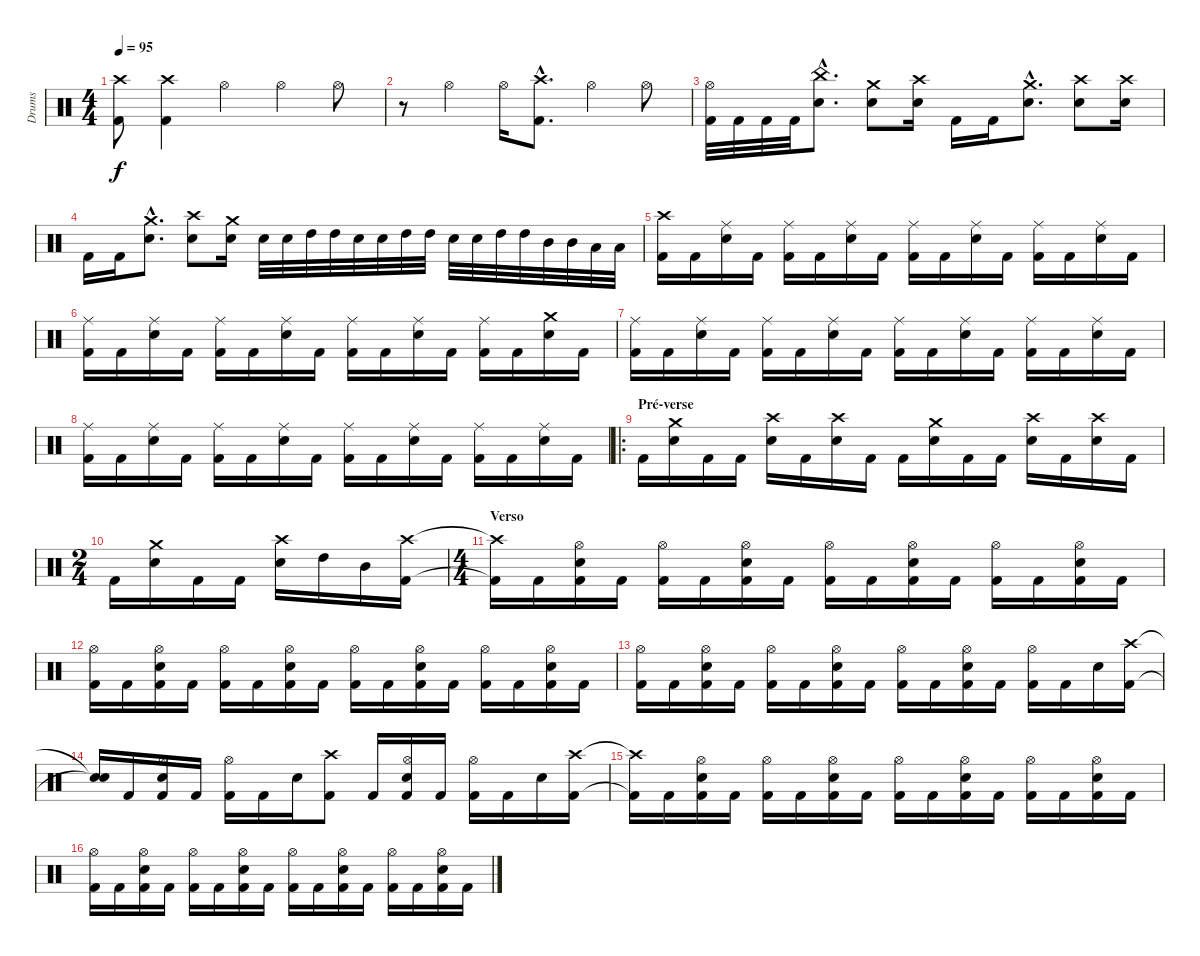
\track ("Drums" "Drums") {instrument percussion}
\staff {score}
\articulation defaults
\ts (4 4)
\tempo 95
\clef neutral
\ks c
("Crash high (hit)" "Kick (hit) 2").8{dy f} ("Crash high (hit)" "Kick (hit) 2").4 "Hi-Hat (open)".4 "Hi-Hat (open)".4 "Hi-Hat (open)".8 |
r.8 "Hi-Hat (open)".4 "Hi-Hat (open)".16 ("Crash high (hit)"{hac} "Kick (hit) 2"{hac}).8{d} "Hi-Hat (open)".4 "Hi-Hat (open)".8 |
("Hi-Hat (open)" "Kick (hit) 2").32 "Kick (hit) 2".32 "Kick (hit) 2".32 "Kick (hit) 2".32 ("China (hit)"{hac} "Snare (hit) 2"{hac}).8{d} ("Crash medium (hit)" "Snare (hit) 2").8 ("Crash high (hit)" "Snare (hit) 2").16 "Kick (hit) 2".16 "Kick (hit) 2".16 ("Crash medium (hit)"{hac} "Snare (hit) 2"{hac}).8{d} ("Crash high (hit)" "Snare (hit) 2").8 ("Crash high (hit)" "Snare (hit) 2").16 |
"Kick (hit) 2".16 "Kick (hit) 2".16 ("Crash medium (hit)"{hac} "Snare (hit) 2"{hac}).8{d} ("Crash high (hit)" "Snare (hit) 2").8 ("Crash medium (hit)" "Snare (hit) 2").16 "Snare (hit) 2".32 "Snare (hit) 2".32 "High Tom (hit)".32 "High Tom (hit)".32 "Snare (hit) 2".32 "Snare (hit) 2".32 "High Tom (hit)".32 "High Tom (hit)".32 "Snare (hit) 2".32 "Snare (hit) 2".32 "High Tom (hit)".32 "High Tom (hit)".32 "Mid Tom (hit)".32 "Mid Tom (hit)".32 "Low Tom (hit)".32 "Low Tom (hit)".32 |
("Crash high (hit)" "Kick (hit) 2").16 "Kick (hit) 2".16 ("Ride (middle)" "Snare (hit) 2").16 "Kick (hit) 2".16 ("Ride (middle)" "Kick (hit) 2").16 "Kick (hit) 2".16 ("Ride (middle)" "Snare (hit) 2").16 "Kick (hit) 2".16 ("Ride (middle)" "Kick (hit) 2").16 "Kick (hit) 2".16 ("Ride (middle)" "Snare (hit) 2").16 "Kick (hit) 2".16 ("Ride (middle)" "Kick (hit) 2").16 "Kick (hit) 2".16 ("Ride (middle)" "Snare (hit) 2").16 "Kick (hit) 2".16 |
("Ride (middle)" "Kick (hit) 2").16 "Kick (hit) 2".16 ("Ride (middle)" "Snare (hit) 2").16 "Kick (hit) 2".16 ("Ride (middle)" "Kick (hit) 2").16 "Kick (hit) 2".16 ("Ride (middle)" "Snare (hit) 2").16 "Kick (hit) 2".16 ("Ride (middle)" "Kick (hit) 2").16 "Kick (hit) 2".16 ("Ride (middle)" "Snare (hit) 2").16 "Kick (hit) 2".16 ("Ride (middle)" "Kick (hit) 2").16 "Kick (hit) 2".16 ("Crash medium (hit)" "Snare (hit) 2").16 "Kick (hit) 2".16 |
("Ride (middle)" "Kick (hit) 2").16 "Kick (hit) 2".16 ("Ride (middle)" "Snare (hit) 2").16 "Kick (hit) 2".16 ("Ride (middle)" "Kick (hit) 2").16 "Kick (hit) 2".16 ("Ride (middle)" "Snare (hit) 2").16 "Kick (hit) 2".16 ("Ride (middle)" "Kick (hit) 2").16 "Kick (hit) 2".16 ("Ride (middle)" "Snare (hit) 2").16 "Kick (hit) 2".16 ("Ride (middle)" "Kick (hit) 2").16 "Kick (hit) 2".16 ("Ride (middle)" "Snare (hit) 2").16 "Kick (hit) 2".16 |
("Ride (middle)" "Kick (hit) 2").16 "Kick (hit) 2".16 ("Ride (middle)" "Snare (hit) 2").16 "Kick (hit) 2".16 ("Ride (middle)" "Kick (hit) 2").16 "Kick (hit) 2".16 ("Ride (middle)" "Snare (hit) 2").16 "Kick (hit) 2".16 ("Ride (middle)" "Kick (hit) 2").16 "Kick (hit) 2".16 ("Ride (middle)" "Snare (hit) 2").16 "Kick (hit) 2".16 ("Ride (middle)" "Kick (hit) 2").16 "Kick (hit) 2".16 ("Ride (middle)" "Snare (hit) 2").16 "Kick (hit) 2".16 |
\ro
\section ("" "Pré-verse")
"Kick (hit) 2".16 ("Crash medium (hit)" "Snare (hit) 2").16 "Kick (hit) 2".16 "Kick (hit) 2".16 ("Crash high (hit)" "Snare (hit) 2").16 "Kick (hit) 2".16 ("Crash high (hit)" "Snare (hit) 2").16 "Kick (hit) 2".16 "Kick (hit) 2".16 ("Crash medium (hit)" "Snare (hit) 2").16 "Kick (hit) 2".16 "Kick (hit) 2".16 ("Crash high (hit)" "Snare (hit) 2").16 "Kick (hit) 2".16 ("Crash high (hit)" "Snare (hit) 2").16 "Kick (hit) 2".16 |
\ts (2 4)
"Kick (hit) 2".16 ("Crash medium (hit)" "Snare (hit) 2").16 "Kick (hit) 2".16 "Kick (hit) 2".16 ("Crash high (hit)" "Snare (hit) 2").16 "High Tom (hit)".16 "Mid Tom (hit)".16 ("Crash high (hit)" "Kick (hit) 2").16 |
\ts (4 4)
\section ("" "Verso")
("Crash high (hit)"{t} "Kick (hit) 2"{t}).16 "Kick (hit) 2".16 ("Hi-Hat (open)" "Snare (hit) 2" "Kick (hit) 2").16 "Kick (hit) 2".16 ("Hi-Hat (open)" "Kick (hit) 2").16 "Kick (hit) 2".16 ("Hi-Hat (open)" "Snare (hit) 2" "Kick (hit) 2").16 "Kick (hit) 2".16 ("Hi-Hat (open)" "Kick (hit) 2").16 "Kick (hit) 2".16 ("Hi-Hat (open)" "Snare (hit) 2" "Kick (hit) 2").16 "Kick (hit) 2".16 ("Hi-Hat (open)" "Kick (hit) 2").16 "Kick (hit) 2".16 ("Hi-Hat (open)" "Snare (hit) 2" "Kick (hit) 2").16 "Kick (hit) 2".16 |
("Hi-Hat (open)" "Kick (hit) 2").16 "Kick (hit) 2".16 ("Hi-Hat (open)" "Snare (hit) 2" "Kick (hit) 2").16 "Kick (hit) 2".16 ("Hi-Hat (open)" "Kick (hit) 2").16 "Kick (hit) 2".16 ("Hi-Hat (open)" "Snare (hit) 2" "Kick (hit) 2").16 "Kick (hit) 2".16 ("Hi-Hat (open)" "Kick (hit) 2").16 "Kick (hit) 2".16 ("Hi-Hat (open)" "Snare (hit) 2" "Kick (hit) 2").16 "Kick (hit) 2".16 ("Hi-Hat (open)" "Kick (hit) 2").16 "Kick (hit) 2".16 ("Hi-Hat (open)" "Snare (hit) 2" "Kick (hit) 2").16 "Kick (hit) 2".16 |
("Hi-Hat (open)" "Kick (hit) 2").16 "Kick (hit) 2".16 ("Hi-Hat (open)" "Snare (hit) 2" "Kick (hit) 2").16 "Kick (hit) 2".16 ("Hi-Hat (open)" "Kick (hit) 2").16 "Kick (hit) 2".16 ("Hi-Hat (open)" "Snare (hit) 2" "Kick (hit) 2").16 "Kick (hit) 2".16 ("Hi-Hat (open)" "Kick (hit) 2").16 "Kick (hit) 2".16 ("Hi-Hat (open)" "Snare (hit) 2" "Kick (hit) 2").16 "Kick (hit) 2".16 ("Hi-Hat (open)" "Kick (hit) 2").16 "Kick (hit) 2".16 "Snare (hit) 2".16 ("Crash high (hit)" "Kick (hit) 2").16 |
("Snare (hit)"{t} "Snare (hit)"{t}).16 "Kick (hit) 2".16 ("Hi-Hat (open)" "Snare (hit) 2" "Kick (hit) 2").16 "Kick (hit) 2".16 ("Hi-Hat (open)" "Kick (hit) 2").16 "Kick (hit) 2".16 "Snare (hit) 2".16 ("Crash high (hit)" "Kick (hit) 2").8 "Kick (hit) 2".16 ("Hi-Hat (open)" "Snare (hit) 2" "Kick (hit) 2").16 "Kick (hit) 2".16 ("Hi-Hat (open)" "Kick (hit) 2").16 "Kick (hit) 2".16 "Snare (hit) 2".16 ("Crash high (hit)" "Kick (hit) 2").16 |
("Crash high (hit)"{t} "Kick (hit) 2"{t}).16 "Kick (hit) 2".16 ("Hi-Hat (open)" "Snare (hit) 2" "Kick (hit) 2").16 "Kick (hit) 2".16 ("Hi-Hat (open)" "Kick (hit) 2").16 "Kick (hit) 2".16 ("Hi-Hat (open)" "Snare (hit) 2" "Kick (hit) 2").16 "Kick (hit) 2".16 ("Hi-Hat (open)" "Kick (hit) 2").16 "Kick (hit) 2".16 ("Hi-Hat (open)" "Snare (hit) 2" "Kick (hit) 2").16 "Kick (hit) 2".16 ("Hi-Hat (open)" "Kick (hit) 2").16 "Kick (hit) 2".16 ("Hi-Hat (open)" "Snare (hit) 2" "Kick (hit) 2").16 "Kick (hit) 2".16 |
("Hi-Hat (open)" "Kick (hit) 2").16 "Kick (hit) 2".16 ("Hi-Hat (open)" "Snare (hit) 2" "Kick (hit) 2").16 "Kick (hit) 2".16 ("Hi-Hat (open)" "Kick (hit) 2").16 "Kick (hit) 2".16 ("Hi-Hat (open)" "Snare (hit) 2" "Kick (hit) 2").16 "Kick (hit) 2".16 ("Hi-Hat (open)" "Kick (hit) 2").16 "Kick (hit) 2".16 ("Hi-Hat (open)" "Snare (hit) 2" "Kick (hit) 2").16 "Kick (hit) 2".16 ("Hi-Hat (open)" "Kick (hit) 2").16 "Kick (hit) 2".16 ("Hi-Hat (open)" "Snare (hit) 2" "Kick (hit) 2").16 "Kick (hit) 2".16
